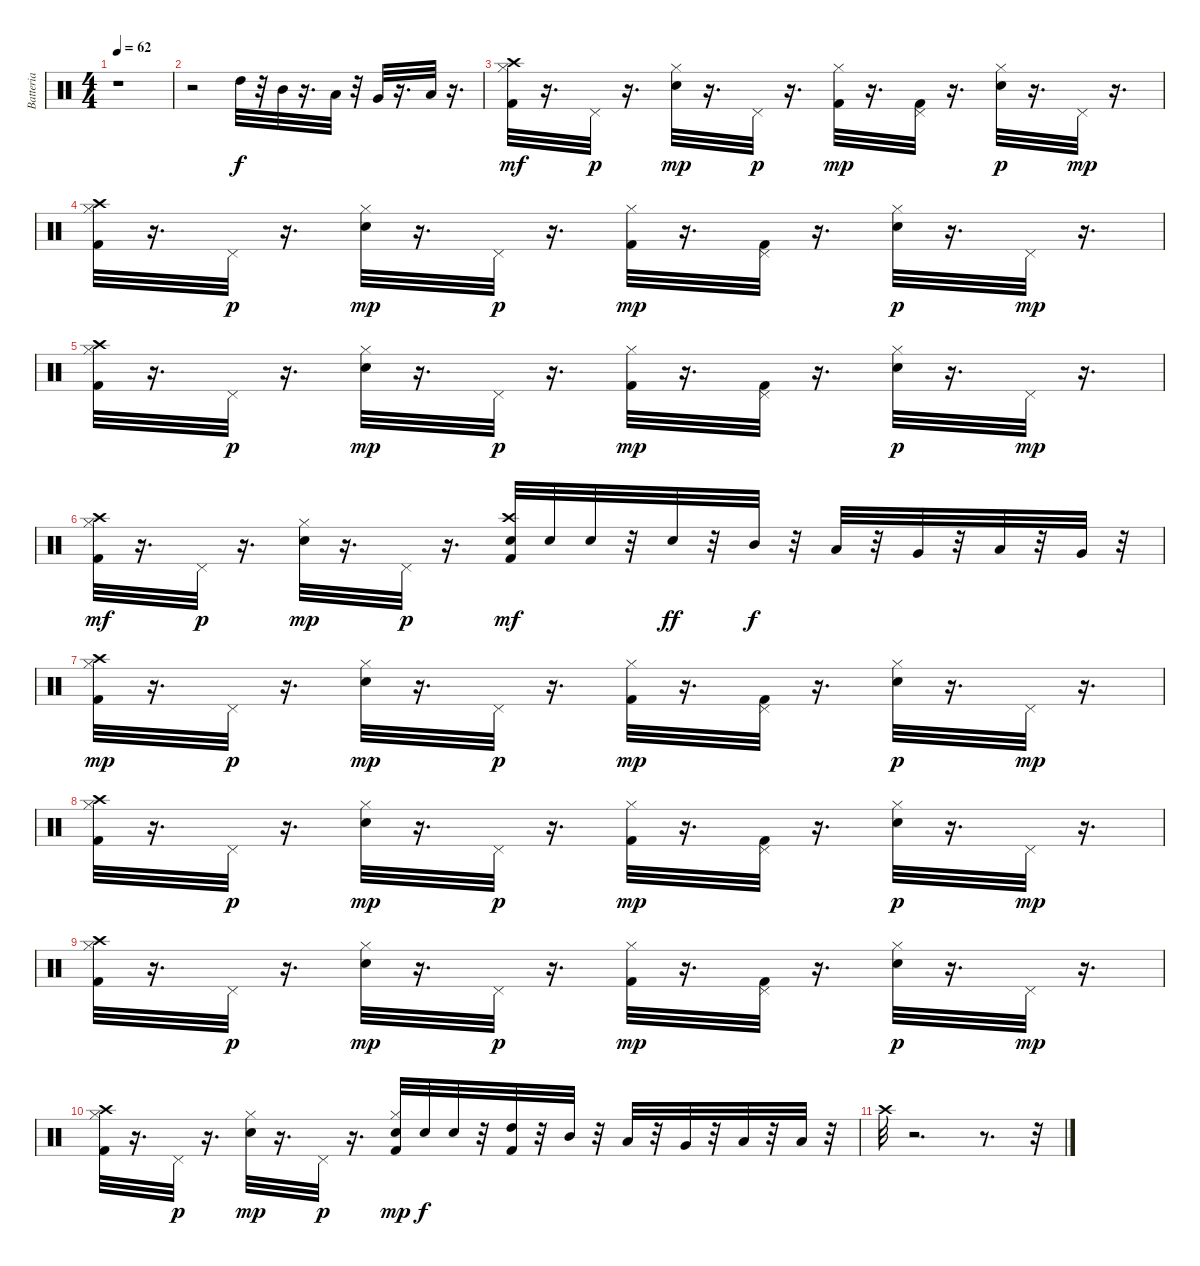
\track ("Batteria" "Batteria") {instrument percussion}
\staff {score}
\articulation defaults
\ts (4 4)
\tempo 62
\clef neutral
\ks c
r.1{dy f} |
r.2 "High Tom (hit)".32 r.32 "Mid Tom (hit)".32 r.16{d} "Low Tom (hit)".32 r.32 "Very Low Tom (hit)".32 r.16{d} "Low Floor Tom (hit)".32 r.16{d} |
("Kick (hit) 2" "Hi-Hat (closed)" "Crash high (hit)").32{dy mf} r.16{d} "Pedal Hi-Hat (hit)".32{dy p} r.16{d} ("Snare (hit) 2" "Hi-Hat (closed)").32{dy mp} r.16{d} "Pedal Hi-Hat (hit)".32{dy p} r.16{d} ("Kick (hit) 2" "Hi-Hat (closed)").32{dy mp} r.16{d} ("Kick (hit) 2" "Pedal Hi-Hat (hit)").32 r.16{d} ("Snare (hit) 2" "Hi-Hat (closed)").32{dy p} r.16{d} "Pedal Hi-Hat (hit)".32{dy mp} r.16{d} |
("Kick (hit) 2" "Hi-Hat (closed)" "Crash high (hit)").32 r.16{d} "Pedal Hi-Hat (hit)".32{dy p} r.16{d} ("Snare (hit) 2" "Hi-Hat (closed)").32{dy mp} r.16{d} "Pedal Hi-Hat (hit)".32{dy p} r.16{d} ("Kick (hit) 2" "Hi-Hat (closed)").32{dy mp} r.16{d} ("Kick (hit) 2" "Pedal Hi-Hat (hit)").32 r.16{d} ("Snare (hit) 2" "Hi-Hat (closed)").32{dy p} r.16{d} "Pedal Hi-Hat (hit)".32{dy mp} r.16{d} |
("Kick (hit) 2" "Hi-Hat (closed)" "Crash high (hit)").32 r.16{d} "Pedal Hi-Hat (hit)".32{dy p} r.16{d} ("Snare (hit) 2" "Hi-Hat (closed)").32{dy mp} r.16{d} "Pedal Hi-Hat (hit)".32{dy p} r.16{d} ("Kick (hit) 2" "Hi-Hat (closed)").32{dy mp} r.16{d} ("Kick (hit) 2" "Pedal Hi-Hat (hit)").32 r.16{d} ("Snare (hit) 2" "Hi-Hat (closed)").32{dy p} r.16{d} "Pedal Hi-Hat (hit)".32{dy mp} r.16{d} |
("Kick (hit) 2" "Hi-Hat (closed)" "Crash high (hit)").32{dy mf} r.16{d} "Pedal Hi-Hat (hit)".32{dy p} r.16{d} ("Snare (hit) 2" "Hi-Hat (closed)").32{dy mp} r.16{d} "Pedal Hi-Hat (hit)".32{dy p} r.16{d} ("Snare (hit) 2" "Kick (hit) 2" "Crash high (hit)").32{dy mf} "Snare (hit) 2".32 "Snare (hit) 2".32 r.32 "Snare (hit) 2".32{dy ff} r.32 "Mid Tom (hit)".32{dy f} r.32 "Low Tom (hit)".32 r.32 "Very Low Tom (hit)".32 r.32 "Low Floor Tom (hit)".32 r.32 "Very Low Tom (hit)".32 r.32 |
("Kick (hit) 2" "Crash high (hit)" "Hi-Hat (closed)").32{dy mp} r.16{d} "Pedal Hi-Hat (hit)".32{dy p} r.16{d} ("Snare (hit) 2" "Hi-Hat (closed)").32{dy mp} r.16{d} "Pedal Hi-Hat (hit)".32{dy p} r.16{d} ("Kick (hit) 2" "Hi-Hat (closed)").32{dy mp} r.16{d} ("Kick (hit) 2" "Pedal Hi-Hat (hit)").32 r.16{d} ("Snare (hit) 2" "Hi-Hat (closed)").32{dy p} r.16{d} "Pedal Hi-Hat (hit)".32{dy mp} r.16{d} |
("Kick (hit) 2" "Crash high (hit)" "Hi-Hat (closed)").32 r.16{d} "Pedal Hi-Hat (hit)".32{dy p} r.16{d} ("Snare (hit) 2" "Hi-Hat (closed)").32{dy mp} r.16{d} "Pedal Hi-Hat (hit)".32{dy p} r.16{d} ("Kick (hit) 2" "Hi-Hat (closed)").32{dy mp} r.16{d} ("Kick (hit) 2" "Pedal Hi-Hat (hit)").32 r.16{d} ("Snare (hit) 2" "Hi-Hat (closed)").32{dy p} r.16{d} "Pedal Hi-Hat (hit)".32{dy mp} r.16{d} |
("Kick (hit) 2" "Crash high (hit)" "Hi-Hat (closed)").32 r.16{d} "Pedal Hi-Hat (hit)".32{dy p} r.16{d} ("Snare (hit) 2" "Hi-Hat (closed)").32{dy mp} r.16{d} "Pedal Hi-Hat (hit)".32{dy p} r.16{d} ("Kick (hit) 2" "Hi-Hat (closed)").32{dy mp} r.16{d} ("Kick (hit) 2" "Pedal Hi-Hat (hit)").32 r.16{d} ("Snare (hit) 2" "Hi-Hat (closed)").32{dy p} r.16{d} "Pedal Hi-Hat (hit)".32{dy mp} r.16{d} |
("Kick (hit) 2" "Crash high (hit)" "Hi-Hat (closed)").32 r.16{d} "Pedal Hi-Hat (hit)".32{dy p} r.16{d} ("Snare (hit) 2" "Hi-Hat (closed)").32{dy mp} r.16{d} "Pedal Hi-Hat (hit)".32{dy p} r.16{d} ("Snare (hit) 2" "Kick (hit) 2" "Hi-Hat (closed)").32{dy mp} "Snare (hit) 2".32{dy f} "Snare (hit) 2".32 r.32 ("High Tom (hit)" "Kick (hit) 2").32 r.32 "Mid Tom (hit)".32 r.32 "Low Tom (hit)".32 r.32 "Very Low Tom (hit)".32 r.32 "Low Tom (hit)".32 r.32 "Low Floor Tom (hit)".32 r.32 |
"Crash high (hit)".32 r.2{d} r.8{d} r.32
